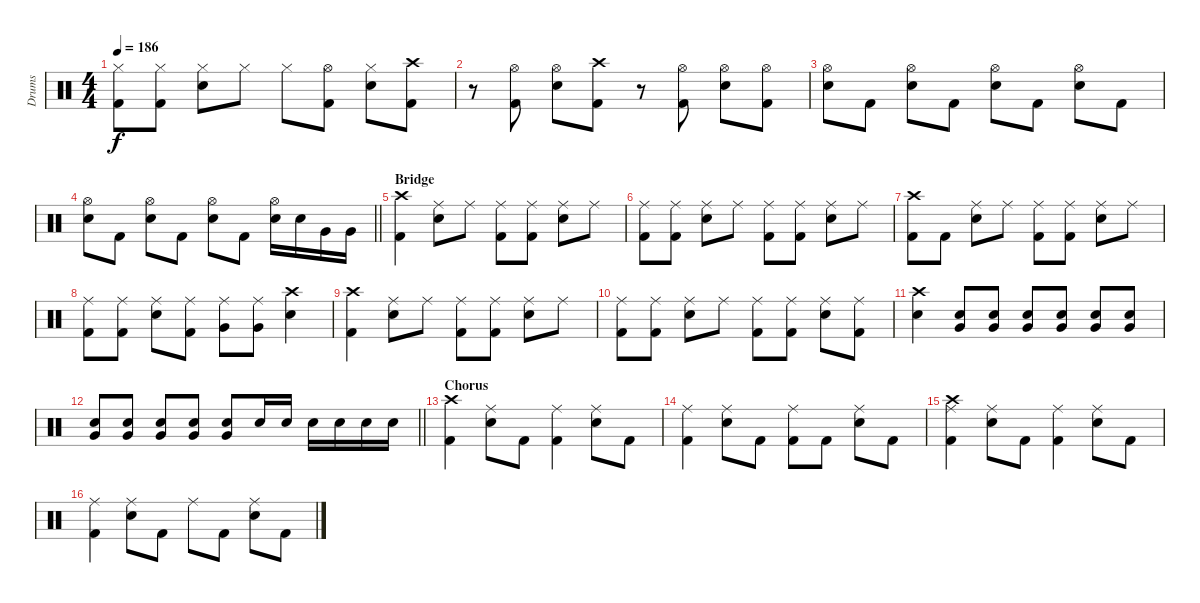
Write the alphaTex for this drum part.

\track ("Drums" "Drums") {instrument percussion}
\staff {score}
\articulation defaults
\ts (4 4)
\tempo 186
\clef neutral
\ks c
("Hi-Hat (closed)" "Kick (hit) 2").8{dy f} ("Hi-Hat (closed)" "Kick (hit) 2").8 ("Hi-Hat (closed)" "Snare (hit) 2").8 "Hi-Hat (closed)".8 "Hi-Hat (closed)".8 ("Hi-Hat (open)" "Kick (hit) 2").8 ("Hi-Hat (closed)" "Snare (hit) 2").8 ("Crash high (hit)" "Kick (hit) 2").8 |
r.8 ("Hi-Hat (open)" "Kick (hit) 2").8 ("Hi-Hat (open)" "Snare (hit) 2").8 ("Crash high (hit)" "Kick (hit) 2").8 r.8 ("Hi-Hat (open)" "Kick (hit) 2").8 ("Hi-Hat (open)" "Snare (hit) 2").8 ("Hi-Hat (open)" "Kick (hit) 2").8 |
("Hi-Hat (open)" "Snare (hit) 2").8 "Kick (hit) 2".8 ("Hi-Hat (open)" "Snare (hit) 2").8 "Kick (hit) 2".8 ("Hi-Hat (open)" "Snare (hit) 2").8 "Kick (hit) 2".8 ("Hi-Hat (open)" "Snare (hit) 2").8 "Kick (hit) 2".8 |
\barLineRight lightlight
("Hi-Hat (open)" "Snare (hit) 2").8 "Kick (hit) 2".8 ("Hi-Hat (open)" "Snare (hit) 2").8 "Kick (hit) 2".8 ("Hi-Hat (open)" "Snare (hit) 2").8 "Kick (hit) 2".8 ("Hi-Hat (open)" "Snare (hit) 2").16 "Snare (hit) 2".16 "Very Low Tom (hit)".16 "Very Low Tom (hit)".16 |
\section ("" "Bridge")
("Crash high (hit)" "Kick (hit) 2").4 ("Ride (middle)" "Snare (hit) 2").8 "Ride (middle)".8 ("Ride (middle)" "Kick (hit) 2").8 ("Ride (middle)" "Kick (hit) 2").8 ("Ride (middle)" "Snare (hit) 2").8 "Ride (middle)".8 |
("Ride (middle)" "Kick (hit) 2").8 ("Ride (middle)" "Kick (hit) 2").8 ("Ride (middle)" "Snare (hit) 2").8 "Ride (middle)".8 ("Ride (middle)" "Kick (hit) 2").8 ("Ride (middle)" "Kick (hit) 2").8 ("Ride (middle)" "Snare (hit) 2").8 "Ride (middle)".8 |
("Crash high (hit)" "Kick (hit) 2").8 "Kick (hit) 2".8 ("Ride (middle)" "Snare (hit) 2").8 "Ride (middle)".8 ("Ride (middle)" "Kick (hit) 2").8 ("Ride (middle)" "Kick (hit) 2").8 ("Ride (middle)" "Snare (hit) 2").8 "Ride (middle)".8 |
("Ride (middle)" "Kick (hit) 2").8 ("Ride (middle)" "Kick (hit) 2").8 ("Ride (middle)" "Snare (hit) 2").8 ("Ride (middle)" "Kick (hit) 2").8 ("Ride (middle)" "Very Low Tom (hit)").8 ("Ride (middle)" "Very Low Tom (hit)").8 ("Crash high (hit)" "Snare (hit) 2").4 |
("Crash high (hit)" "Kick (hit) 2").4 ("Ride (middle)" "Snare (hit) 2").8 "Ride (middle)".8 ("Ride (middle)" "Kick (hit) 2").8 ("Ride (middle)" "Kick (hit) 2").8 ("Ride (middle)" "Snare (hit) 2").8 "Ride (middle)".8 |
("Ride (middle)" "Kick (hit) 2").8 ("Ride (middle)" "Kick (hit) 2").8 ("Ride (middle)" "Snare (hit) 2").8 "Ride (middle)".8 ("Ride (middle)" "Kick (hit) 2").8 ("Ride (middle)" "Kick (hit) 2").8 ("Ride (middle)" "Snare (hit) 2").8 ("Ride (middle)" "Kick (hit) 2").8 |
("Crash high (hit)" "Snare (hit) 2").4 ("Snare (hit) 2" "Very Low Tom (hit)").8{volume 16} ("Snare (hit) 2" "Very Low Tom (hit)").8 ("Snare (hit) 2" "Very Low Tom (hit)").8 ("Snare (hit) 2" "Very Low Tom (hit)").8 ("Snare (hit) 2" "Very Low Tom (hit)").8 ("Snare (hit) 2" "Very Low Tom (hit)").8 |
\barLineRight lightlight
("Snare (hit) 2" "Very Low Tom (hit)").8 ("Snare (hit) 2" "Very Low Tom (hit)").8 ("Snare (hit) 2" "Very Low Tom (hit)").8 ("Snare (hit) 2" "Very Low Tom (hit)").8 ("Snare (hit) 2" "Very Low Tom (hit)").8 "Snare (hit) 2".16 "Snare (hit) 2".16 "Snare (hit) 2".16 "Snare (hit) 2".16 "Snare (hit) 2".16 "Snare (hit) 2".16 |
\section ("" "Chorus")
("Crash high (hit)" "Kick (hit) 2").4{volume 13} ("Ride (middle)" "Snare (hit) 2").8 "Kick (hit) 2".8 ("Ride (middle)" "Kick (hit) 2").4 ("Ride (middle)" "Snare (hit) 2").8 "Kick (hit) 2".8 |
("Ride (middle)" "Kick (hit) 2").4 ("Ride (middle)" "Snare (hit) 2").8 "Kick (hit) 2".8 ("Ride (middle)" "Kick (hit) 2").8 "Kick (hit) 2".8 ("Ride (middle)" "Snare (hit) 2").8 "Kick (hit) 2".8 |
("Crash high (hit)" "Ride (middle)" "Kick (hit) 2").4 ("Ride (middle)" "Snare (hit) 2").8 "Kick (hit) 2".8 ("Ride (middle)" "Kick (hit) 2").4 ("Ride (middle)" "Snare (hit) 2").8 "Kick (hit) 2".8 |
("Ride (middle)" "Kick (hit) 2").4 ("Ride (middle)" "Snare (hit) 2").8 "Kick (hit) 2".8 "Ride (middle)".8 "Kick (hit) 2".8 ("Ride (middle)" "Snare (hit) 2").8 "Kick (hit) 2".8
